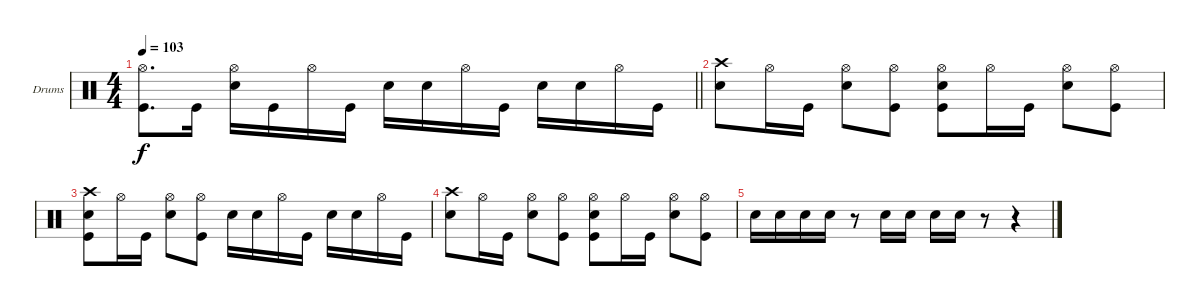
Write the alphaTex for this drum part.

\bracketExtendMode groupsimilarinstruments
\firstSystemTrackNameOrientation horizontal
\otherSystemsTrackNameOrientation horizontal
\track ("Drums" "Drums") {instrument percussion}
\staff {score}
\articulation defaults
\ts (4 4)
\tempo 103
\clef neutral
\barLineRight lightlight
\ks c
("Kick (hit)" "Hi-Hat (open)").8{d dy f} "Kick (hit)".16 ("Snare (hit) 2" "Hi-Hat (open)").16 "Kick (hit)".16 "Hi-Hat (open)".16 "Kick (hit)".16 "Snare (hit) 2".16 "Snare (hit) 2".16 "Hi-Hat (open)".16 "Kick (hit)".16 "Snare (hit) 2".16 "Snare (hit) 2".16 "Hi-Hat (open)".16 "Kick (hit)".16 |
("Crash high (hit)" "Snare (hit) 2").8 "Hi-Hat (open)".16 "Kick (hit)".16 ("Snare (hit) 2" "Hi-Hat (open)").8 ("Kick (hit)" "Hi-Hat (open)").8 ("Kick (hit)" "Snare (hit) 2" "Hi-Hat (open)").8 "Hi-Hat (open)".16 "Kick (hit)".16 ("Snare (hit) 2" "Hi-Hat (open)").8 ("Kick (hit)" "Hi-Hat (open)").8 |
("Kick (hit)" "Snare (hit) 2" "Crash high (hit)").8 "Hi-Hat (open)".16 "Kick (hit)".16 ("Snare (hit) 2" "Hi-Hat (open)").8 ("Kick (hit)" "Hi-Hat (open)").8 "Snare (hit) 2".16 "Snare (hit) 2".16 "Hi-Hat (open)".16 "Kick (hit)".16 "Snare (hit) 2".16 "Snare (hit) 2".16 "Hi-Hat (open)".16 "Kick (hit)".16 |
("Crash high (hit)" "Snare (hit) 2").8 "Hi-Hat (open)".16 "Kick (hit)".16 ("Snare (hit) 2" "Hi-Hat (open)").8 ("Kick (hit)" "Hi-Hat (open)").8 ("Kick (hit)" "Snare (hit) 2" "Hi-Hat (open)").8 "Hi-Hat (open)".16 "Kick (hit)".16 ("Snare (hit) 2" "Hi-Hat (open)").8 ("Kick (hit)" "Hi-Hat (open)").8 |
"Snare (hit) 2".16 "Snare (hit) 2".16 "Snare (hit) 2".16 "Snare (hit) 2".16 r.8 "Snare (hit) 2".16 "Snare (hit) 2".16 "Snare (hit) 2".16 "Snare (hit) 2".16 r.8 r.4
